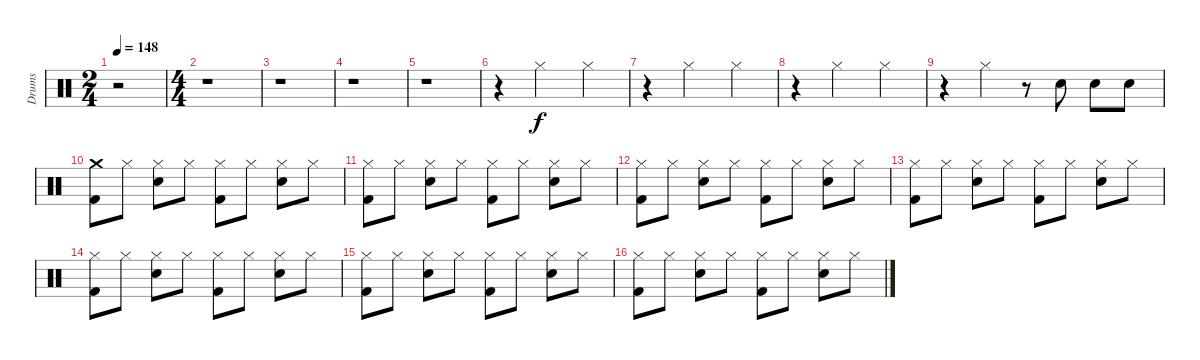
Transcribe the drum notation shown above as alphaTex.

\track ("Drums" "Drums") {instrument percussion}
\staff {score}
\articulation defaults
\ts (2 4)
\tempo 148
\clef neutral
\ks c
r.2{dy f} |
\ts (4 4)
r.1 |
r.1 |
r.1 |
r.1 |
r.4 "Hi-Hat (closed)".2 "Hi-Hat (closed)".4 |
r.4 "Hi-Hat (closed)".2 "Hi-Hat (closed)".4 |
r.4 "Hi-Hat (closed)".2 "Hi-Hat (closed)".4 |
r.4 "Hi-Hat (closed)".4 r.8 "Snare (hit) 2".8 "Snare (hit) 2".8 "Snare (hit) 2".8 |
("Kick (hit) 2" "Crash medium (hit)").8 "Hi-Hat (closed)".8 ("Snare (hit) 2" "Hi-Hat (closed)").8 "Hi-Hat (closed)".8 ("Kick (hit) 2" "Hi-Hat (closed)").8 "Hi-Hat (closed)".8 ("Snare (hit) 2" "Hi-Hat (closed)").8 "Hi-Hat (closed)".8 |
("Kick (hit) 2" "Hi-Hat (closed)").8 "Hi-Hat (closed)".8 ("Snare (hit) 2" "Hi-Hat (closed)").8 "Hi-Hat (closed)".8 ("Kick (hit) 2" "Hi-Hat (closed)").8 "Hi-Hat (closed)".8 ("Snare (hit) 2" "Hi-Hat (closed)").8 "Hi-Hat (closed)".8 |
("Kick (hit) 2" "Hi-Hat (closed)").8 "Hi-Hat (closed)".8 ("Snare (hit) 2" "Hi-Hat (closed)").8 "Hi-Hat (closed)".8 ("Kick (hit) 2" "Hi-Hat (closed)").8 "Hi-Hat (closed)".8 ("Snare (hit) 2" "Hi-Hat (closed)").8 "Hi-Hat (closed)".8 |
("Kick (hit) 2" "Hi-Hat (closed)").8 "Hi-Hat (closed)".8 ("Snare (hit) 2" "Hi-Hat (closed)").8 "Hi-Hat (closed)".8 ("Kick (hit) 2" "Hi-Hat (closed)").8 "Hi-Hat (closed)".8 ("Snare (hit) 2" "Hi-Hat (closed)").8 "Hi-Hat (closed)".8 |
("Kick (hit) 2" "Hi-Hat (closed)").8 "Hi-Hat (closed)".8 ("Snare (hit) 2" "Hi-Hat (closed)").8 "Hi-Hat (closed)".8 ("Kick (hit) 2" "Hi-Hat (closed)").8 "Hi-Hat (closed)".8 ("Snare (hit) 2" "Hi-Hat (closed)").8 "Hi-Hat (closed)".8 |
("Kick (hit) 2" "Hi-Hat (closed)").8 "Hi-Hat (closed)".8 ("Snare (hit) 2" "Hi-Hat (closed)").8 "Hi-Hat (closed)".8 ("Kick (hit) 2" "Hi-Hat (closed)").8 "Hi-Hat (closed)".8 ("Snare (hit) 2" "Hi-Hat (closed)").8 "Hi-Hat (closed)".8 |
("Kick (hit) 2" "Hi-Hat (closed)").8 "Hi-Hat (closed)".8 ("Snare (hit) 2" "Hi-Hat (closed)").8 "Hi-Hat (closed)".8 ("Kick (hit) 2" "Hi-Hat (closed)").8 "Hi-Hat (closed)".8 ("Snare (hit) 2" "Hi-Hat (closed)").8 "Hi-Hat (closed)".8
